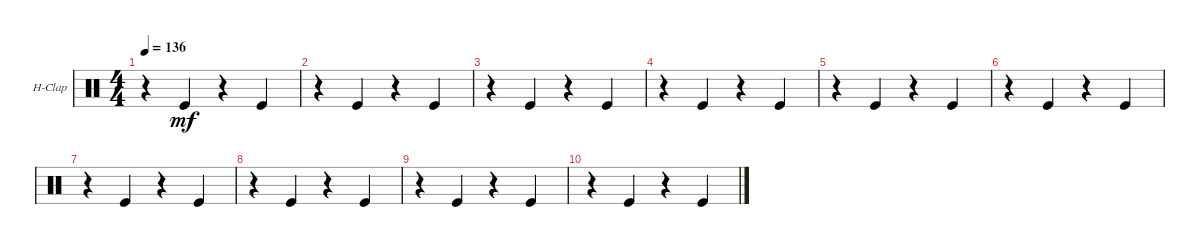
\defaultSystemsLayout 4
\bracketExtendMode groupsimilarinstruments
\firstSystemTrackNameOrientation horizontal
\otherSystemsTrackNameOrientation horizontal
\track ("Hand Clap" "H-Clap") {instrument percussion}
\staff {score}
\articulation defaults
\ts (4 4)
\tempo 136
\clef neutral
\scale
0.333333
\ks c
r.4{dy mf} "Kick (hit)".4 r.4 "Kick (hit)".4 |
\scale
0.333333 r.4 "Kick (hit)".4 r.4 "Kick (hit)".4 |
\scale
0.333333 r.4 "Kick (hit)".4 r.4 "Kick (hit)".4 |
\scale
0.333333 r.4 "Kick (hit)".4 r.4 "Kick (hit)".4 |
\scale
0.333333 r.4 "Kick (hit)".4 r.4 "Kick (hit)".4 |
\scale
0.333333 r.4 "Kick (hit)".4 r.4 "Kick (hit)".4 |
\scale
0.333333 r.4 "Kick (hit)".4 r.4 "Kick (hit)".4 |
r.4 "Kick (hit)".4 r.4 "Kick (hit)".4 |
r.4 "Kick (hit)".4 r.4 "Kick (hit)".4 |
r.4 "Kick (hit)".4 r.4 "Kick (hit)".4
